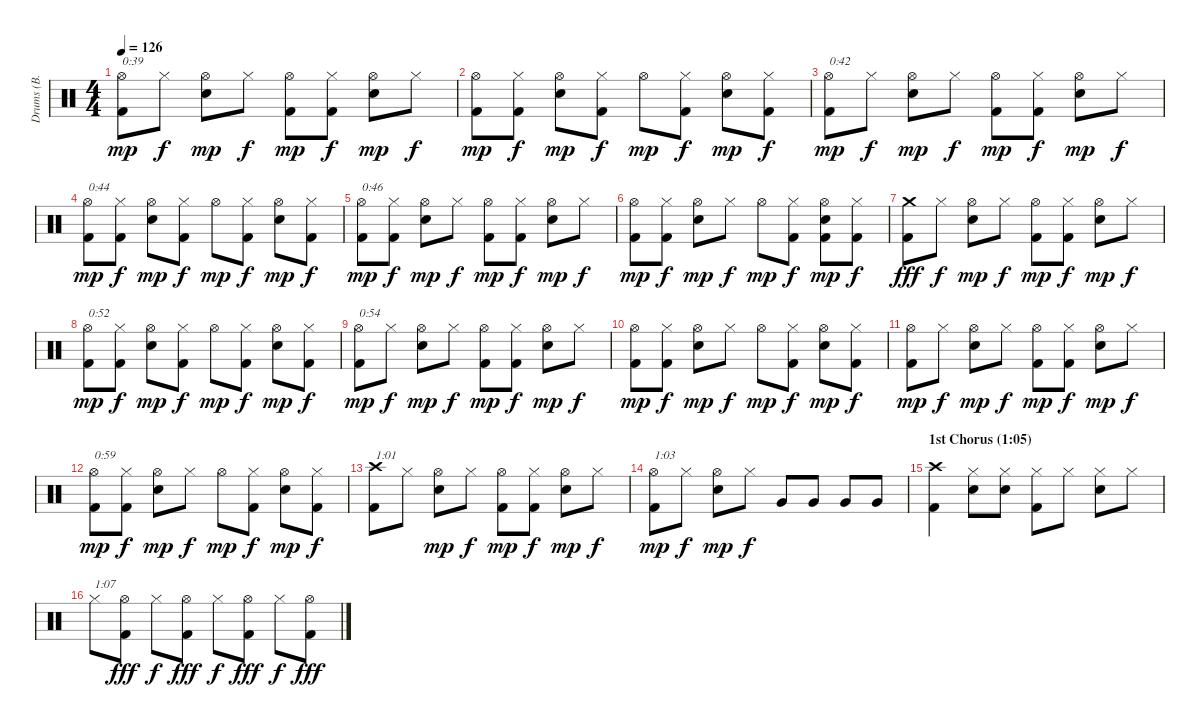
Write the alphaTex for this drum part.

\track ("Drums (B. Downey)" "Drums (B. ") {instrument percussion}
\staff {score}
\articulation defaults
\ts (4 4)
\tempo 126
\clef neutral
\ks c
("Hi-Hat (open)" "Kick (hit) 2").8{txt "0:39" dy mp} "Hi-Hat (closed)".8{dy f} ("Hi-Hat (open)" "Electric Snare (hit)").8{dy mp} "Hi-Hat (closed)".8{dy f} ("Hi-Hat (open)" "Kick (hit) 2").8{dy mp} ("Hi-Hat (closed)" "Kick (hit) 2").8{dy f} ("Hi-Hat (open)" "Electric Snare (hit)").8{dy mp} "Hi-Hat (closed)".8{dy f} |
("Hi-Hat (open)" "Kick (hit) 2").8{dy mp} ("Hi-Hat (closed)" "Kick (hit) 2").8{dy f} ("Hi-Hat (open)" "Electric Snare (hit)").8{dy mp} ("Hi-Hat (closed)" "Kick (hit) 2").8{dy f} "Hi-Hat (open)".8{dy mp} ("Hi-Hat (closed)" "Kick (hit) 2").8{dy f} ("Hi-Hat (open)" "Electric Snare (hit)").8{dy mp} ("Hi-Hat (closed)" "Kick (hit) 2").8{dy f} |
("Hi-Hat (open)" "Kick (hit) 2").8{txt "0:42" dy mp} "Hi-Hat (closed)".8{dy f} ("Hi-Hat (open)" "Electric Snare (hit)").8{dy mp} "Hi-Hat (closed)".8{dy f} ("Hi-Hat (open)" "Kick (hit) 2").8{dy mp} ("Hi-Hat (closed)" "Kick (hit) 2").8{dy f} ("Hi-Hat (open)" "Electric Snare (hit)").8{dy mp} "Hi-Hat (closed)".8{dy f} |
("Hi-Hat (open)" "Kick (hit) 2").8{txt "0:44" dy mp} ("Hi-Hat (closed)" "Kick (hit) 2").8{dy f} ("Hi-Hat (open)" "Electric Snare (hit)").8{dy mp} ("Hi-Hat (closed)" "Kick (hit) 2").8{dy f} "Hi-Hat (open)".8{dy mp} ("Hi-Hat (closed)" "Kick (hit) 2").8{dy f} ("Hi-Hat (open)" "Electric Snare (hit)").8{dy mp} ("Hi-Hat (closed)" "Kick (hit) 2").8{dy f} |
("Hi-Hat (open)" "Kick (hit) 2").8{txt "0:46" dy mp} ("Hi-Hat (closed)" "Kick (hit) 2").8{dy f} ("Hi-Hat (open)" "Electric Snare (hit)").8{dy mp} "Hi-Hat (closed)".8{dy f} ("Hi-Hat (open)" "Kick (hit) 2").8{dy mp} ("Hi-Hat (closed)" "Kick (hit) 2").8{dy f} ("Hi-Hat (open)" "Electric Snare (hit)").8{dy mp} "Hi-Hat (closed)".8{dy f} |
("Hi-Hat (open)" "Kick (hit) 2").8{dy mp} ("Hi-Hat (closed)" "Kick (hit) 2").8{dy f} ("Hi-Hat (open)" "Electric Snare (hit)").8{dy mp} "Hi-Hat (closed)".8{dy f} "Hi-Hat (open)".8{dy mp} ("Hi-Hat (closed)" "Kick (hit) 2").8{dy f} ("Hi-Hat (open)" "Electric Snare (hit)" "Kick (hit) 2").8{dy mp} ("Hi-Hat (closed)" "Kick (hit) 2").8{dy f} |
("Crash medium (hit)" "Kick (hit) 2").8{dy fff} "Hi-Hat (closed)".8{dy f} ("Hi-Hat (open)" "Electric Snare (hit)").8{dy mp} "Hi-Hat (closed)".8{dy f} ("Hi-Hat (open)" "Kick (hit) 2").8{dy mp} ("Hi-Hat (closed)" "Kick (hit) 2").8{dy f} ("Hi-Hat (open)" "Electric Snare (hit)").8{dy mp} "Hi-Hat (closed)".8{dy f} |
("Hi-Hat (open)" "Kick (hit) 2").8{txt "0:52" dy mp} ("Hi-Hat (closed)" "Kick (hit) 2").8{dy f} ("Hi-Hat (open)" "Electric Snare (hit)").8{dy mp} ("Hi-Hat (closed)" "Kick (hit) 2").8{dy f} "Hi-Hat (open)".8{dy mp} ("Hi-Hat (closed)" "Kick (hit) 2").8{dy f} ("Hi-Hat (open)" "Electric Snare (hit)").8{dy mp} ("Hi-Hat (closed)" "Kick (hit) 2").8{dy f} |
("Hi-Hat (open)" "Kick (hit) 2").8{txt "0:54" dy mp} "Hi-Hat (closed)".8{dy f} ("Hi-Hat (open)" "Electric Snare (hit)").8{dy mp} "Hi-Hat (closed)".8{dy f} ("Hi-Hat (open)" "Kick (hit) 2").8{dy mp} ("Hi-Hat (closed)" "Kick (hit) 2").8{dy f} ("Hi-Hat (open)" "Electric Snare (hit)").8{dy mp} "Hi-Hat (closed)".8{dy f} |
("Hi-Hat (open)" "Kick (hit) 2").8{dy mp} ("Hi-Hat (closed)" "Kick (hit) 2").8{dy f} ("Hi-Hat (open)" "Electric Snare (hit)").8{dy mp} "Hi-Hat (closed)".8{dy f} "Hi-Hat (open)".8{dy mp} ("Hi-Hat (closed)" "Kick (hit) 2").8{dy f} ("Hi-Hat (open)" "Electric Snare (hit)").8{dy mp} ("Hi-Hat (closed)" "Kick (hit) 2").8{dy f} |
("Hi-Hat (open)" "Kick (hit) 2").8{dy mp} "Hi-Hat (closed)".8{dy f} ("Hi-Hat (open)" "Electric Snare (hit)").8{dy mp} "Hi-Hat (closed)".8{dy f} ("Hi-Hat (open)" "Kick (hit) 2").8{dy mp} ("Hi-Hat (closed)" "Kick (hit) 2").8{dy f} ("Hi-Hat (open)" "Electric Snare (hit)").8{dy mp} "Hi-Hat (closed)".8{dy f} |
("Hi-Hat (open)" "Kick (hit) 2").8{txt "0:59" dy mp} ("Hi-Hat (closed)" "Kick (hit) 2").8{dy f} ("Hi-Hat (open)" "Electric Snare (hit)").8{dy mp} "Hi-Hat (closed)".8{dy f} "Hi-Hat (open)".8{dy mp} ("Hi-Hat (closed)" "Kick (hit) 2").8{dy f} ("Hi-Hat (open)" "Electric Snare (hit)").8{dy mp} ("Hi-Hat (closed)" "Kick (hit) 2").8{dy f} |
("Crash high (hit)" "Kick (hit) 2").8{txt "1:01"} "Hi-Hat (closed)".8 ("Hi-Hat (open)" "Electric Snare (hit)").8{dy mp} "Hi-Hat (closed)".8{dy f} ("Hi-Hat (open)" "Kick (hit) 2").8{dy mp} ("Hi-Hat (closed)" "Kick (hit) 2").8{dy f} ("Hi-Hat (open)" "Electric Snare (hit)").8{dy mp} "Hi-Hat (closed)".8{dy f} |
("Hi-Hat (open)" "Kick (hit) 2").8{txt "1:03" dy mp} "Hi-Hat (closed)".8{dy f} ("Hi-Hat (open)" "Electric Snare (hit)").8{dy mp} "Hi-Hat (closed)".8{dy f} "Very Low Tom (hit)".8 "Very Low Tom (hit)".8 "Very Low Tom (hit)".8 "Very Low Tom (hit)".8 |
\section ("" "1st Chorus (1:05)")
("Crash high (hit)" "Kick (hit) 2").4 ("Hi-Hat (closed)" "Electric Snare (hit)").8 ("Hi-Hat (closed)" "Electric Snare (hit)").8 ("Hi-Hat (closed)" "Kick (hit) 2").8 "Hi-Hat (closed)".8 ("Hi-Hat (closed)" "Electric Snare (hit)").8 "Hi-Hat (closed)".8 |
"Hi-Hat (closed)".8{txt "1:07"} ("Hi-Hat (open)" "Kick (hit) 2").8{dy fff} "Hi-Hat (closed)".8{dy f} ("Hi-Hat (open)" "Kick (hit) 2").8{dy fff} "Hi-Hat (closed)".8{dy f} ("Hi-Hat (open)" "Kick (hit) 2").8{dy fff} "Hi-Hat (closed)".8{dy f} ("Hi-Hat (open)" "Kick (hit) 2").8{dy fff}
